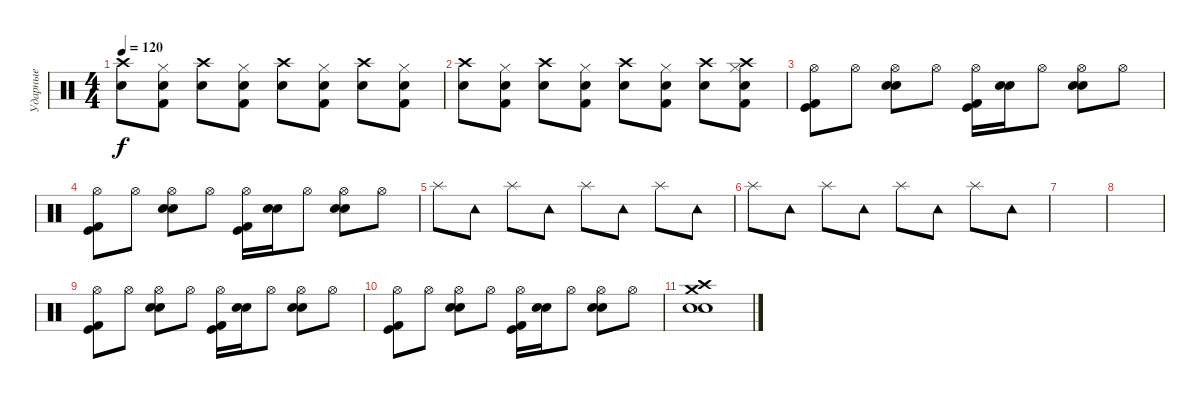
\track ("Ударные" "Ударные") {instrument percussion}
\staff {score}
\articulation defaults
\ts (4 4)
\tempo 120
\clef neutral
\ks c
("Crash high (hit)" "Snare (hit) 2").8{dy f} ("Snare (hit) 2" "Kick (hit) 2" "Hi-Hat (closed)").8 ("Crash high (hit)" "Snare (hit) 2").8 ("Snare (hit) 2" "Kick (hit) 2" "Hi-Hat (closed)").8 ("Crash high (hit)" "Snare (hit) 2").8 ("Kick (hit) 2" "Hi-Hat (closed)" "Snare (hit) 2").8 ("Crash high (hit)" "Snare (hit) 2").8 ("Kick (hit) 2" "Snare (hit) 2" "Hi-Hat (closed)").8 |
("Crash high (hit)" "Snare (hit) 2").8 ("Snare (hit) 2" "Kick (hit) 2" "Hi-Hat (closed)").8 ("Crash high (hit)" "Snare (hit) 2").8 ("Snare (hit) 2" "Kick (hit) 2" "Hi-Hat (closed)").8 ("Crash high (hit)" "Snare (hit) 2").8 ("Kick (hit) 2" "Hi-Hat (closed)" "Snare (hit) 2").8 ("Crash high (hit)" "Snare (hit) 2").8 ("Kick (hit) 2" "Snare (hit) 2" "Hi-Hat (closed)" "Crash high (hit)").8 |
("Hi-Hat (open)" "Kick (hit) 2" "Kick (hit)").8 "Hi-Hat (open)".8 ("Hi-Hat (open)" "Electric Snare (hit)" "Snare (hit) 2").8 "Hi-Hat (open)".8 ("Hi-Hat (open)" "Kick (hit)" "Kick (hit) 2").16 ("Electric Snare (hit)" "Snare (hit) 2").16 "Hi-Hat (open)".8 ("Hi-Hat (open)" "Electric Snare (hit)" "Snare (hit) 2").8 "Hi-Hat (open)".8 |
("Hi-Hat (open)" "Kick (hit) 2" "Kick (hit)").8 "Hi-Hat (open)".8 ("Hi-Hat (open)" "Electric Snare (hit)" "Snare (hit) 2").8 "Hi-Hat (open)".8 ("Hi-Hat (open)" "Kick (hit)" "Kick (hit) 2").16 ("Electric Snare (hit)" "Snare (hit) 2").16 "Hi-Hat (open)".8 ("Hi-Hat (open)" "Electric Snare (hit)" "Snare (hit) 2").8 "Hi-Hat (open)".8 |
"Splash (hit)".8 "Tambourine (hit)".8 "Splash (hit)".8 "Tambourine (hit)".8 "Splash (hit)".8 "Tambourine (hit)".8 "Splash (hit)".8 "Tambourine (hit)".8 |
"Splash (hit)".8 "Tambourine (hit)".8 "Splash (hit)".8 "Tambourine (hit)".8 "Splash (hit)".8 "Tambourine (hit)".8 "Splash (hit)".8 "Tambourine (hit)".8 |
|
|
("Hi-Hat (open)" "Kick (hit) 2" "Kick (hit)").8 "Hi-Hat (open)".8 ("Hi-Hat (open)" "Electric Snare (hit)" "Snare (hit) 2").8 "Hi-Hat (open)".8 ("Hi-Hat (open)" "Kick (hit)" "Kick (hit) 2").16 ("Electric Snare (hit)" "Snare (hit) 2").16 "Hi-Hat (open)".8 ("Hi-Hat (open)" "Electric Snare (hit)" "Snare (hit) 2").8 "Hi-Hat (open)".8 |
("Hi-Hat (open)" "Kick (hit) 2" "Kick (hit)").8 "Hi-Hat (open)".8 ("Hi-Hat (open)" "Electric Snare (hit)" "Snare (hit) 2").8 "Hi-Hat (open)".8 ("Hi-Hat (open)" "Kick (hit)" "Kick (hit) 2").16 ("Electric Snare (hit)" "Snare (hit) 2").16 "Hi-Hat (open)".8 ("Hi-Hat (open)" "Electric Snare (hit)" "Snare (hit) 2").8 "Hi-Hat (open)".8 |
("Crash medium (hit)" "Crash high (hit)" "Snare (hit) 2" "Electric Snare (hit)").1
